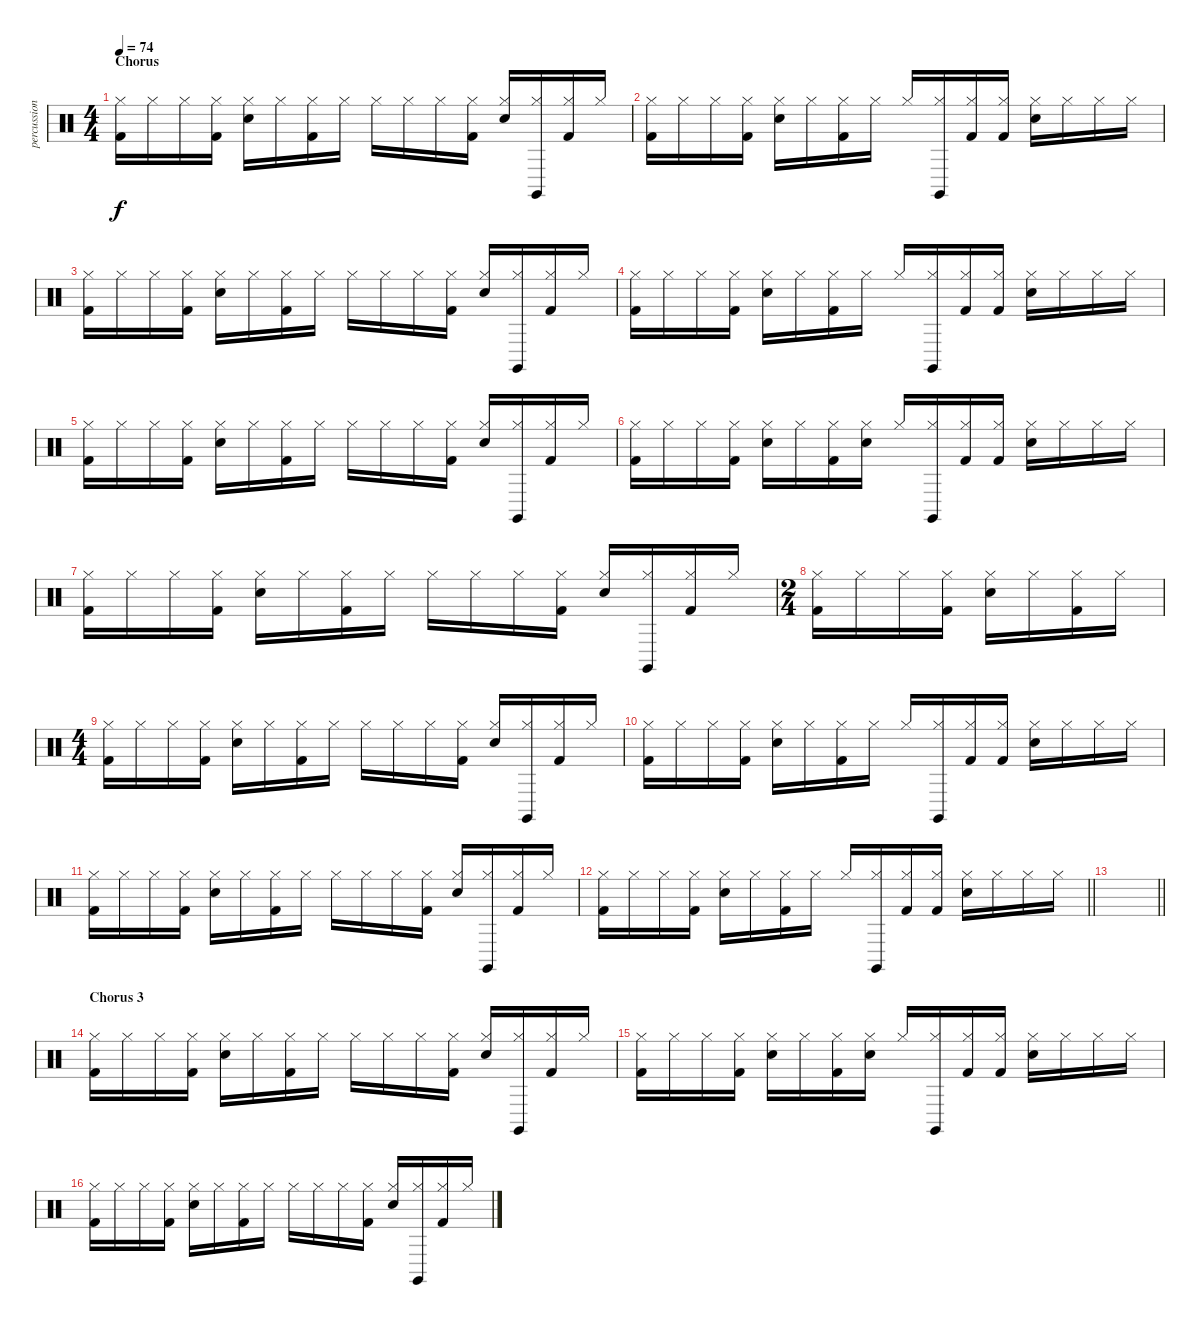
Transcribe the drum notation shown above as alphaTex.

\track ("percussion" "percussion") {instrument percussion}
\staff {score}
\articulation defaults
\ts (4 4)
\section ("" "Chorus")
\tempo 74
\clef neutral
\ks c
("Hi-Hat (closed)" "Kick (hit) 2").16{dy f} "Hi-Hat (closed)".16 "Hi-Hat (closed)".16 ("Hi-Hat (closed)" "Kick (hit) 2").16 ("Snare (hit) 2" "Hi-Hat (closed)").16 "Hi-Hat (closed)".16 ("Hi-Hat (closed)" "Kick (hit) 2").16 "Hi-Hat (closed)".16 "Hi-Hat (closed)".16 "Hi-Hat (closed)".16 "Hi-Hat (closed)".16 ("Hi-Hat (closed)" "Kick (hit) 2").16 ("Snare (hit) 2" "Hi-Hat (closed)").16 ("Claves (hit)" "Hi-Hat (closed)").16 ("Hi-Hat (closed)" "Kick (hit) 2").16 "Hi-Hat (closed)".16 |
("Hi-Hat (closed)" "Kick (hit) 2").16 "Hi-Hat (closed)".16 "Hi-Hat (closed)".16 ("Hi-Hat (closed)" "Kick (hit) 2").16 ("Snare (hit) 2" "Hi-Hat (closed)").16 "Hi-Hat (closed)".16 ("Hi-Hat (closed)" "Kick (hit) 2").16 "Hi-Hat (closed)".16 "Hi-Hat (closed)".16 ("Claves (hit)" "Hi-Hat (closed)").16 ("Hi-Hat (closed)" "Kick (hit) 2").16 ("Hi-Hat (closed)" "Kick (hit) 2").16 ("Snare (hit) 2" "Hi-Hat (closed)").16 "Hi-Hat (closed)".16 "Hi-Hat (closed)".16 "Hi-Hat (closed)".16 |
("Hi-Hat (closed)" "Kick (hit) 2").16 "Hi-Hat (closed)".16 "Hi-Hat (closed)".16 ("Hi-Hat (closed)" "Kick (hit) 2").16 ("Snare (hit) 2" "Hi-Hat (closed)").16 "Hi-Hat (closed)".16 ("Hi-Hat (closed)" "Kick (hit) 2").16 "Hi-Hat (closed)".16 "Hi-Hat (closed)".16 "Hi-Hat (closed)".16 "Hi-Hat (closed)".16 ("Hi-Hat (closed)" "Kick (hit) 2").16 ("Snare (hit) 2" "Hi-Hat (closed)").16 ("Claves (hit)" "Hi-Hat (closed)").16 ("Hi-Hat (closed)" "Kick (hit) 2").16 "Hi-Hat (closed)".16 |
("Hi-Hat (closed)" "Kick (hit) 2").16 "Hi-Hat (closed)".16 "Hi-Hat (closed)".16 ("Hi-Hat (closed)" "Kick (hit) 2").16 ("Snare (hit) 2" "Hi-Hat (closed)").16 "Hi-Hat (closed)".16 ("Hi-Hat (closed)" "Kick (hit) 2").16 "Hi-Hat (closed)".16 "Hi-Hat (closed)".16 ("Claves (hit)" "Hi-Hat (closed)").16 ("Hi-Hat (closed)" "Kick (hit) 2").16 ("Hi-Hat (closed)" "Kick (hit) 2").16 ("Snare (hit) 2" "Hi-Hat (closed)").16 "Hi-Hat (closed)".16 "Hi-Hat (closed)".16 "Hi-Hat (closed)".16 |
("Hi-Hat (closed)" "Kick (hit) 2").16 "Hi-Hat (closed)".16 "Hi-Hat (closed)".16 ("Hi-Hat (closed)" "Kick (hit) 2").16 ("Snare (hit) 2" "Hi-Hat (closed)").16 "Hi-Hat (closed)".16 ("Hi-Hat (closed)" "Kick (hit) 2").16 "Hi-Hat (closed)".16 "Hi-Hat (closed)".16 "Hi-Hat (closed)".16 "Hi-Hat (closed)".16 ("Hi-Hat (closed)" "Kick (hit) 2").16 ("Snare (hit) 2" "Hi-Hat (closed)").16 ("Claves (hit)" "Hi-Hat (closed)").16 ("Hi-Hat (closed)" "Kick (hit) 2").16 "Hi-Hat (closed)".16 |
("Hi-Hat (closed)" "Kick (hit) 2").16 "Hi-Hat (closed)".16 "Hi-Hat (closed)".16 ("Hi-Hat (closed)" "Kick (hit) 2").16 ("Snare (hit) 2" "Hi-Hat (closed)").16 "Hi-Hat (closed)".16 ("Hi-Hat (closed)" "Kick (hit) 2").16 ("Snare (hit) 2" "Hi-Hat (closed)").16 "Hi-Hat (closed)".16 ("Claves (hit)" "Hi-Hat (closed)").16 ("Hi-Hat (closed)" "Kick (hit) 2").16 ("Hi-Hat (closed)" "Kick (hit) 2").16 ("Snare (hit) 2" "Hi-Hat (closed)").16 "Hi-Hat (closed)".16 "Hi-Hat (closed)".16 "Hi-Hat (closed)".16 |
("Hi-Hat (closed)" "Kick (hit) 2").16 "Hi-Hat (closed)".16 "Hi-Hat (closed)".16 ("Hi-Hat (closed)" "Kick (hit) 2").16 ("Snare (hit) 2" "Hi-Hat (closed)").16 "Hi-Hat (closed)".16 ("Hi-Hat (closed)" "Kick (hit) 2").16 "Hi-Hat (closed)".16 "Hi-Hat (closed)".16 "Hi-Hat (closed)".16 "Hi-Hat (closed)".16 ("Hi-Hat (closed)" "Kick (hit) 2").16 ("Snare (hit) 2" "Hi-Hat (closed)").16 ("Claves (hit)" "Hi-Hat (closed)").16 ("Hi-Hat (closed)" "Kick (hit) 2").16 "Hi-Hat (closed)".16 |
\ts (2 4)
("Hi-Hat (closed)" "Kick (hit) 2").16 "Hi-Hat (closed)".16 "Hi-Hat (closed)".16 ("Hi-Hat (closed)" "Kick (hit) 2").16 ("Snare (hit) 2" "Hi-Hat (closed)").16 "Hi-Hat (closed)".16 ("Hi-Hat (closed)" "Kick (hit) 2").16 "Hi-Hat (closed)".16 |
\ts (4 4)
("Hi-Hat (closed)" "Kick (hit) 2").16 "Hi-Hat (closed)".16 "Hi-Hat (closed)".16 ("Hi-Hat (closed)" "Kick (hit) 2").16 ("Snare (hit) 2" "Hi-Hat (closed)").16 "Hi-Hat (closed)".16 ("Hi-Hat (closed)" "Kick (hit) 2").16 "Hi-Hat (closed)".16 "Hi-Hat (closed)".16 "Hi-Hat (closed)".16 "Hi-Hat (closed)".16 ("Hi-Hat (closed)" "Kick (hit) 2").16 ("Snare (hit) 2" "Hi-Hat (closed)").16 ("Claves (hit)" "Hi-Hat (closed)").16 ("Hi-Hat (closed)" "Kick (hit) 2").16 "Hi-Hat (closed)".16 |
("Hi-Hat (closed)" "Kick (hit) 2").16 "Hi-Hat (closed)".16 "Hi-Hat (closed)".16 ("Hi-Hat (closed)" "Kick (hit) 2").16 ("Snare (hit) 2" "Hi-Hat (closed)").16 "Hi-Hat (closed)".16 ("Hi-Hat (closed)" "Kick (hit) 2").16 "Hi-Hat (closed)".16 "Hi-Hat (closed)".16 ("Claves (hit)" "Hi-Hat (closed)").16 ("Hi-Hat (closed)" "Kick (hit) 2").16 ("Hi-Hat (closed)" "Kick (hit) 2").16 ("Snare (hit) 2" "Hi-Hat (closed)").16 "Hi-Hat (closed)".16 "Hi-Hat (closed)".16 "Hi-Hat (closed)".16 |
("Hi-Hat (closed)" "Kick (hit) 2").16 "Hi-Hat (closed)".16 "Hi-Hat (closed)".16 ("Hi-Hat (closed)" "Kick (hit) 2").16 ("Snare (hit) 2" "Hi-Hat (closed)").16 "Hi-Hat (closed)".16 ("Hi-Hat (closed)" "Kick (hit) 2").16 "Hi-Hat (closed)".16 "Hi-Hat (closed)".16 "Hi-Hat (closed)".16 "Hi-Hat (closed)".16 ("Hi-Hat (closed)" "Kick (hit) 2").16 ("Snare (hit) 2" "Hi-Hat (closed)").16 ("Claves (hit)" "Hi-Hat (closed)").16 ("Hi-Hat (closed)" "Kick (hit) 2").16 "Hi-Hat (closed)".16 |
\barLineRight lightlight
("Hi-Hat (closed)" "Kick (hit) 2").16 "Hi-Hat (closed)".16 "Hi-Hat (closed)".16 ("Hi-Hat (closed)" "Kick (hit) 2").16 ("Snare (hit) 2" "Hi-Hat (closed)").16 "Hi-Hat (closed)".16 ("Hi-Hat (closed)" "Kick (hit) 2").16 "Hi-Hat (closed)".16 "Hi-Hat (closed)".16 ("Claves (hit)" "Hi-Hat (closed)").16 ("Hi-Hat (closed)" "Kick (hit) 2").16 ("Hi-Hat (closed)" "Kick (hit) 2").16 ("Snare (hit) 2" "Hi-Hat (closed)").16 "Hi-Hat (closed)".16 "Hi-Hat (closed)".16 "Hi-Hat (closed)".16 |
\barLineRight lightlight
|
\section ("" "Chorus 3")
("Hi-Hat (closed)" "Kick (hit) 2").16 "Hi-Hat (closed)".16 "Hi-Hat (closed)".16 ("Hi-Hat (closed)" "Kick (hit) 2").16 ("Snare (hit) 2" "Hi-Hat (closed)").16 "Hi-Hat (closed)".16 ("Hi-Hat (closed)" "Kick (hit) 2").16 "Hi-Hat (closed)".16 "Hi-Hat (closed)".16 "Hi-Hat (closed)".16 "Hi-Hat (closed)".16 ("Hi-Hat (closed)" "Kick (hit) 2").16 ("Snare (hit) 2" "Hi-Hat (closed)").16 ("Claves (hit)" "Hi-Hat (closed)").16 ("Hi-Hat (closed)" "Kick (hit) 2").16 "Hi-Hat (closed)".16 |
("Hi-Hat (closed)" "Kick (hit) 2").16 "Hi-Hat (closed)".16 "Hi-Hat (closed)".16 ("Hi-Hat (closed)" "Kick (hit) 2").16 ("Snare (hit) 2" "Hi-Hat (closed)").16 "Hi-Hat (closed)".16 ("Hi-Hat (closed)" "Kick (hit) 2").16 ("Snare (hit) 2" "Hi-Hat (closed)").16 "Hi-Hat (closed)".16 ("Claves (hit)" "Hi-Hat (closed)").16 ("Hi-Hat (closed)" "Kick (hit) 2").16 ("Hi-Hat (closed)" "Kick (hit) 2").16 ("Snare (hit) 2" "Hi-Hat (closed)").16 "Hi-Hat (closed)".16 "Hi-Hat (closed)".16 "Hi-Hat (closed)".16 |
("Hi-Hat (closed)" "Kick (hit) 2").16 "Hi-Hat (closed)".16 "Hi-Hat (closed)".16 ("Hi-Hat (closed)" "Kick (hit) 2").16 ("Snare (hit) 2" "Hi-Hat (closed)").16 "Hi-Hat (closed)".16 ("Hi-Hat (closed)" "Kick (hit) 2").16 "Hi-Hat (closed)".16 "Hi-Hat (closed)".16 "Hi-Hat (closed)".16 "Hi-Hat (closed)".16 ("Hi-Hat (closed)" "Kick (hit) 2").16 ("Snare (hit) 2" "Hi-Hat (closed)").16 ("Claves (hit)" "Hi-Hat (closed)").16 ("Hi-Hat (closed)" "Kick (hit) 2").16 "Hi-Hat (closed)".16
